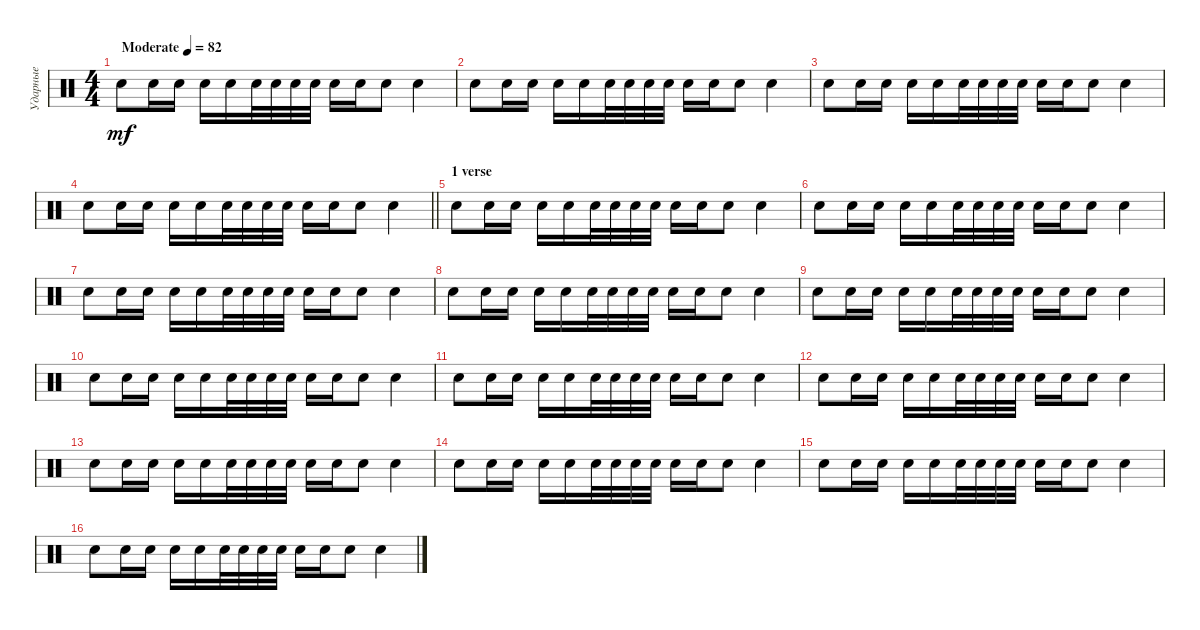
\track ("Ударные" "Ударные") {instrument percussion}
\staff {score}
\articulation defaults
\ts (4 4)
\tempo (82 "Moderate")
\clef neutral
\ks c "Electric Snare (hit)".8{dy mf} "Electric Snare (hit)".16 "Electric Snare (hit)".16 "Electric Snare (hit)".16 "Electric Snare (hit)".16 "Electric Snare (hit)".32 "Electric Snare (hit)".32 "Electric Snare (hit)".32 "Electric Snare (hit)".32 "Electric Snare (hit)".16 "Electric Snare (hit)".16 "Electric Snare (hit)".8 "Electric Snare (hit)".4
|
"Electric Snare (hit)".8 "Electric Snare (hit)".16 "Electric Snare (hit)".16 "Electric Snare (hit)".16 "Electric Snare (hit)".16 "Electric Snare (hit)".32 "Electric Snare (hit)".32 "Electric Snare (hit)".32 "Electric Snare (hit)".32 "Electric Snare (hit)".16 "Electric Snare (hit)".16 "Electric Snare (hit)".8 "Electric Snare (hit)".4 |
"Electric Snare (hit)".8 "Electric Snare (hit)".16 "Electric Snare (hit)".16 "Electric Snare (hit)".16 "Electric Snare (hit)".16 "Electric Snare (hit)".32 "Electric Snare (hit)".32 "Electric Snare (hit)".32 "Electric Snare (hit)".32 "Electric Snare (hit)".16 "Electric Snare (hit)".16 "Electric Snare (hit)".8 "Electric Snare (hit)".4 |
\barLineRight lightlight "Electric Snare (hit)".8 "Electric Snare (hit)".16 "Electric Snare (hit)".16 "Electric Snare (hit)".16 "Electric Snare (hit)".16 "Electric Snare (hit)".32 "Electric Snare (hit)".32 "Electric Snare (hit)".32 "Electric Snare (hit)".32 "Electric Snare (hit)".16 "Electric Snare (hit)".16 "Electric Snare (hit)".8 "Electric Snare (hit)".4
|
\section ("" "1 verse")
"Electric Snare (hit)".8 "Electric Snare (hit)".16 "Electric Snare (hit)".16 "Electric Snare (hit)".16 "Electric Snare (hit)".16 "Electric Snare (hit)".32 "Electric Snare (hit)".32 "Electric Snare (hit)".32 "Electric Snare (hit)".32 "Electric Snare (hit)".16 "Electric Snare (hit)".16 "Electric Snare (hit)".8 "Electric Snare (hit)".4 |
"Electric Snare (hit)".8 "Electric Snare (hit)".16 "Electric Snare (hit)".16 "Electric Snare (hit)".16 "Electric Snare (hit)".16 "Electric Snare (hit)".32 "Electric Snare (hit)".32 "Electric Snare (hit)".32 "Electric Snare (hit)".32 "Electric Snare (hit)".16 "Electric Snare (hit)".16 "Electric Snare (hit)".8 "Electric Snare (hit)".4 |
"Electric Snare (hit)".8 "Electric Snare (hit)".16 "Electric Snare (hit)".16 "Electric Snare (hit)".16 "Electric Snare (hit)".16 "Electric Snare (hit)".32 "Electric Snare (hit)".32 "Electric Snare (hit)".32 "Electric Snare (hit)".32 "Electric Snare (hit)".16 "Electric Snare (hit)".16 "Electric Snare (hit)".8 "Electric Snare (hit)".4 |
"Electric Snare (hit)".8 "Electric Snare (hit)".16 "Electric Snare (hit)".16 "Electric Snare (hit)".16 "Electric Snare (hit)".16 "Electric Snare (hit)".32 "Electric Snare (hit)".32 "Electric Snare (hit)".32 "Electric Snare (hit)".32 "Electric Snare (hit)".16 "Electric Snare (hit)".16 "Electric Snare (hit)".8 "Electric Snare (hit)".4 |
"Electric Snare (hit)".8 "Electric Snare (hit)".16 "Electric Snare (hit)".16 "Electric Snare (hit)".16 "Electric Snare (hit)".16 "Electric Snare (hit)".32 "Electric Snare (hit)".32 "Electric Snare (hit)".32 "Electric Snare (hit)".32 "Electric Snare (hit)".16 "Electric Snare (hit)".16 "Electric Snare (hit)".8 "Electric Snare (hit)".4 |
"Electric Snare (hit)".8 "Electric Snare (hit)".16 "Electric Snare (hit)".16 "Electric Snare (hit)".16 "Electric Snare (hit)".16 "Electric Snare (hit)".32 "Electric Snare (hit)".32 "Electric Snare (hit)".32 "Electric Snare (hit)".32 "Electric Snare (hit)".16 "Electric Snare (hit)".16 "Electric Snare (hit)".8 "Electric Snare (hit)".4 |
"Electric Snare (hit)".8 "Electric Snare (hit)".16 "Electric Snare (hit)".16 "Electric Snare (hit)".16 "Electric Snare (hit)".16 "Electric Snare (hit)".32 "Electric Snare (hit)".32 "Electric Snare (hit)".32 "Electric Snare (hit)".32 "Electric Snare (hit)".16 "Electric Snare (hit)".16 "Electric Snare (hit)".8 "Electric Snare (hit)".4 |
"Electric Snare (hit)".8 "Electric Snare (hit)".16 "Electric Snare (hit)".16 "Electric Snare (hit)".16 "Electric Snare (hit)".16 "Electric Snare (hit)".32 "Electric Snare (hit)".32 "Electric Snare (hit)".32 "Electric Snare (hit)".32 "Electric Snare (hit)".16 "Electric Snare (hit)".16 "Electric Snare (hit)".8 "Electric Snare (hit)".4 |
"Electric Snare (hit)".8 "Electric Snare (hit)".16 "Electric Snare (hit)".16 "Electric Snare (hit)".16 "Electric Snare (hit)".16 "Electric Snare (hit)".32 "Electric Snare (hit)".32 "Electric Snare (hit)".32 "Electric Snare (hit)".32 "Electric Snare (hit)".16 "Electric Snare (hit)".16 "Electric Snare (hit)".8 "Electric Snare (hit)".4 |
"Electric Snare (hit)".8 "Electric Snare (hit)".16 "Electric Snare (hit)".16 "Electric Snare (hit)".16 "Electric Snare (hit)".16 "Electric Snare (hit)".32 "Electric Snare (hit)".32 "Electric Snare (hit)".32 "Electric Snare (hit)".32 "Electric Snare (hit)".16 "Electric Snare (hit)".16 "Electric Snare (hit)".8 "Electric Snare (hit)".4 |
"Electric Snare (hit)".8 "Electric Snare (hit)".16 "Electric Snare (hit)".16 "Electric Snare (hit)".16 "Electric Snare (hit)".16 "Electric Snare (hit)".32 "Electric Snare (hit)".32 "Electric Snare (hit)".32 "Electric Snare (hit)".32 "Electric Snare (hit)".16 "Electric Snare (hit)".16 "Electric Snare (hit)".8 "Electric Snare (hit)".4 |
"Electric Snare (hit)".8 "Electric Snare (hit)".16 "Electric Snare (hit)".16 "Electric Snare (hit)".16 "Electric Snare (hit)".16 "Electric Snare (hit)".32 "Electric Snare (hit)".32 "Electric Snare (hit)".32 "Electric Snare (hit)".32 "Electric Snare (hit)".16 "Electric Snare (hit)".16 "Electric Snare (hit)".8 "Electric Snare (hit)".4
